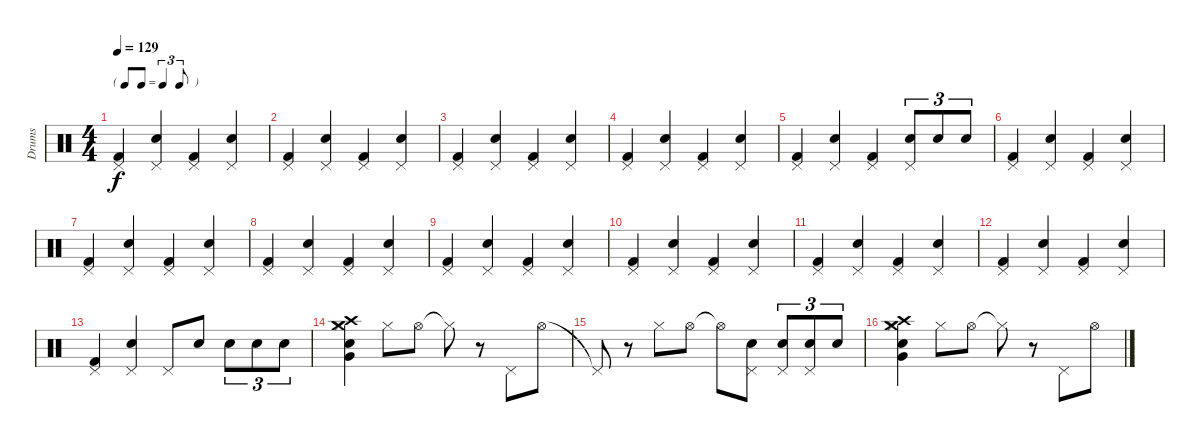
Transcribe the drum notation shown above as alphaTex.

\track ("Drums" "Drums") {instrument percussion}
\staff {score}
\articulation defaults
\ts (4 4)
\tf triplet8th
\tempo 129
\clef neutral
\ks c
("Pedal Hi-Hat (hit)" "Kick (hit) 2").4{dy f} ("Pedal Hi-Hat (hit)" "Electric Snare (hit)").4 ("Pedal Hi-Hat (hit)" "Kick (hit) 2").4 ("Pedal Hi-Hat (hit)" "Electric Snare (hit)").4 |
("Pedal Hi-Hat (hit)" "Kick (hit) 2").4 ("Pedal Hi-Hat (hit)" "Electric Snare (hit)").4 ("Pedal Hi-Hat (hit)" "Kick (hit) 2").4 ("Pedal Hi-Hat (hit)" "Electric Snare (hit)").4 |
("Pedal Hi-Hat (hit)" "Kick (hit) 2").4 ("Pedal Hi-Hat (hit)" "Electric Snare (hit)").4 ("Pedal Hi-Hat (hit)" "Kick (hit) 2").4 ("Pedal Hi-Hat (hit)" "Electric Snare (hit)").4 |
("Pedal Hi-Hat (hit)" "Kick (hit) 2").4 ("Pedal Hi-Hat (hit)" "Electric Snare (hit)").4 ("Pedal Hi-Hat (hit)" "Kick (hit) 2").4 ("Pedal Hi-Hat (hit)" "Electric Snare (hit)").4 |
("Pedal Hi-Hat (hit)" "Kick (hit) 2").4 ("Pedal Hi-Hat (hit)" "Electric Snare (hit)").4 ("Pedal Hi-Hat (hit)" "Kick (hit) 2").4 ("Pedal Hi-Hat (hit)" "Electric Snare (hit)").8{tu (3 2)} "Electric Snare (hit)".8{tu (3 2)} "Electric Snare (hit)".8{tu (3 2)} |
("Pedal Hi-Hat (hit)" "Kick (hit) 2").4 ("Pedal Hi-Hat (hit)" "Electric Snare (hit)").4 ("Pedal Hi-Hat (hit)" "Kick (hit) 2").4 ("Pedal Hi-Hat (hit)" "Electric Snare (hit)").4 |
("Pedal Hi-Hat (hit)" "Kick (hit) 2").4 ("Pedal Hi-Hat (hit)" "Electric Snare (hit)").4 ("Pedal Hi-Hat (hit)" "Kick (hit) 2").4 ("Pedal Hi-Hat (hit)" "Electric Snare (hit)").4 |
("Pedal Hi-Hat (hit)" "Kick (hit) 2").4 ("Pedal Hi-Hat (hit)" "Electric Snare (hit)").4 ("Pedal Hi-Hat (hit)" "Kick (hit) 2").4 ("Pedal Hi-Hat (hit)" "Electric Snare (hit)").4 |
("Pedal Hi-Hat (hit)" "Kick (hit) 2").4 ("Pedal Hi-Hat (hit)" "Electric Snare (hit)").4 ("Pedal Hi-Hat (hit)" "Kick (hit) 2").4 ("Pedal Hi-Hat (hit)" "Electric Snare (hit)").4 |
("Pedal Hi-Hat (hit)" "Kick (hit) 2").4 ("Pedal Hi-Hat (hit)" "Electric Snare (hit)").4 ("Pedal Hi-Hat (hit)" "Kick (hit) 2").4 ("Pedal Hi-Hat (hit)" "Electric Snare (hit)").4 |
("Pedal Hi-Hat (hit)" "Kick (hit) 2").4 ("Pedal Hi-Hat (hit)" "Electric Snare (hit)").4 ("Pedal Hi-Hat (hit)" "Kick (hit) 2").4 ("Pedal Hi-Hat (hit)" "Electric Snare (hit)").4 |
("Pedal Hi-Hat (hit)" "Kick (hit) 2").4 ("Pedal Hi-Hat (hit)" "Electric Snare (hit)").4 ("Pedal Hi-Hat (hit)" "Kick (hit) 2").4 ("Pedal Hi-Hat (hit)" "Electric Snare (hit)").4 |
("Pedal Hi-Hat (hit)" "Kick (hit) 2").4 ("Pedal Hi-Hat (hit)" "Electric Snare (hit)").4 "Pedal Hi-Hat (hit)".8 "Electric Snare (hit)".8 "Electric Snare (hit)".8{tu (3 2)} "Electric Snare (hit)".8{tu (3 2)} "Electric Snare (hit)".8{tu (3 2)} |
("Very Low Tom (hit)" "Hi-Hat (closed)" "Crash high (hit)" "Crash medium (hit)" "Electric Snare (hit)").4 "Hi-Hat (closed)".8 "Hi-Hat (open)".8 "Hi-Hat (closed)"{t}.8 r.8 "Pedal Hi-Hat (hit)".8 "Hi-Hat (open)".8 |
"Pedal Hi-Hat (hit)"{t}.8 r.8 "Hi-Hat (closed)".8 "Hi-Hat (open)".8 "Hi-Hat (open)"{t}.8 ("Pedal Hi-Hat (hit)" "Electric Snare (hit)").8 ("Pedal Hi-Hat (hit)" "Electric Snare (hit)").8{tu (3 2)} ("Pedal Hi-Hat (hit)" "Electric Snare (hit)").8{tu (3 2)} "Electric Snare (hit)".8{tu (3 2)} |
("Very Low Tom (hit)" "Hi-Hat (closed)" "Crash high (hit)" "Crash medium (hit)" "Electric Snare (hit)").4 "Hi-Hat (closed)".8 "Hi-Hat (open)".8 "Hi-Hat (closed)"{t}.8 r.8 "Pedal Hi-Hat (hit)".8 "Hi-Hat (open)".8
